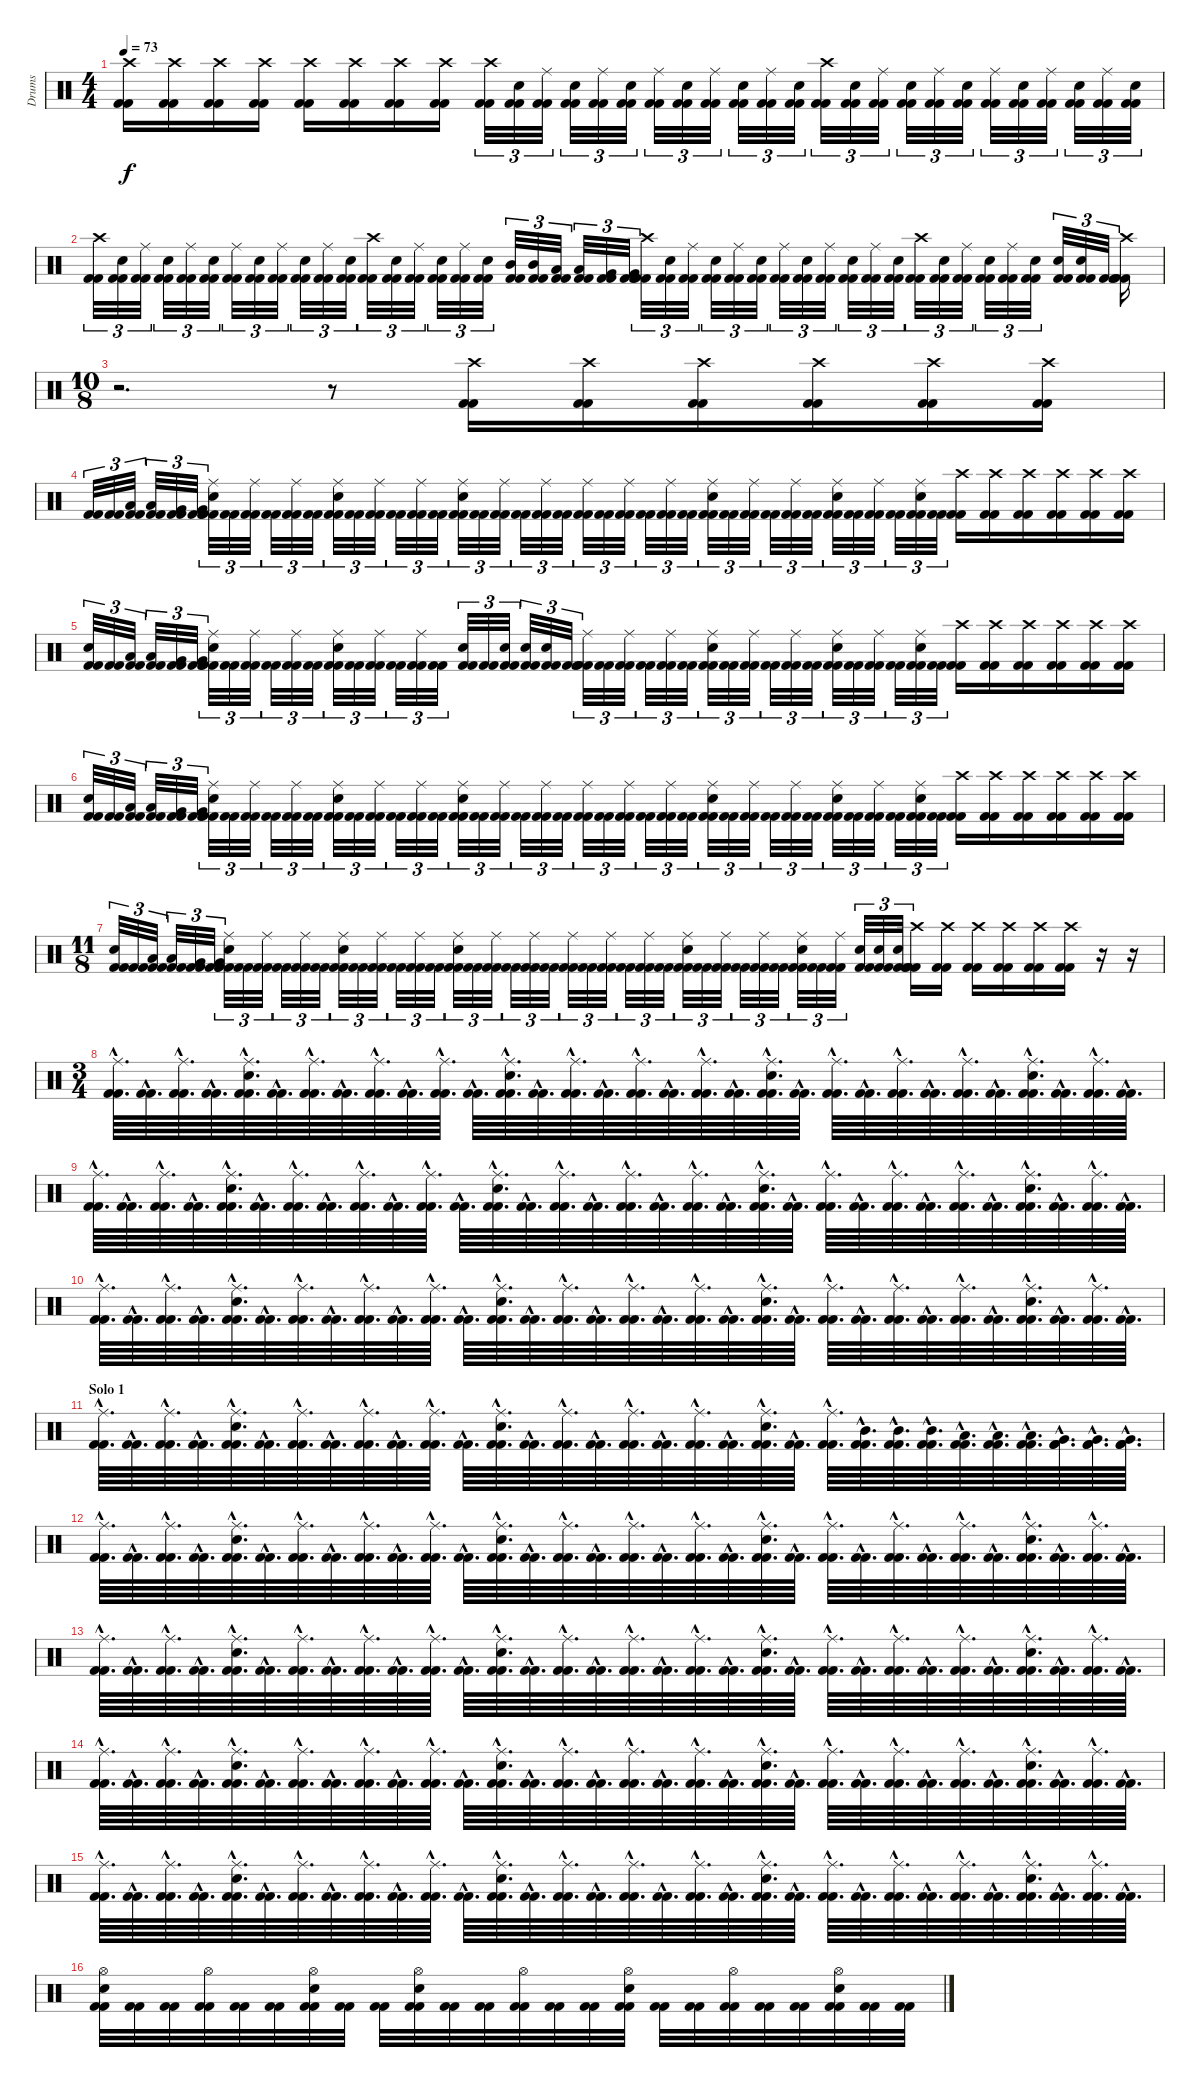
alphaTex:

\track ("Drums" "Drums") {instrument percussion}
\staff {score}
\articulation defaults
\ts (4 4)
\tempo 73
\clef neutral
\ks c
("Kick (hit) 2" "Kick (hit) 2" "Crash high (hit)").16{dy f} ("Kick (hit) 2" "Kick (hit) 2" "Crash high (hit)").16 ("Kick (hit) 2" "Kick (hit) 2" "Crash high (hit)").16 ("Kick (hit) 2" "Kick (hit) 2" "Crash high (hit)").16 ("Kick (hit) 2" "Kick (hit) 2" "Crash high (hit)").16 ("Kick (hit) 2" "Kick (hit) 2" "Crash high (hit)").16 ("Kick (hit) 2" "Kick (hit) 2" "Crash high (hit)").16 ("Kick (hit) 2" "Kick (hit) 2" "Crash high (hit)").16 ("Kick (hit) 2" "Kick (hit) 2" "Crash high (hit)").32{tu (3 2)} ("Kick (hit) 2" "Kick (hit) 2" "Electric Snare (hit)").32{tu (3 2)} ("Kick (hit) 2" "Kick (hit) 2" "Ride (middle)").32{tu (3 2)} ("Kick (hit) 2" "Kick (hit) 2" "Electric Snare (hit)").32{tu (3 2)} ("Kick (hit) 2" "Kick (hit) 2" "Ride (middle)").32{tu (3 2)} ("Kick (hit) 2" "Kick (hit) 2" "Electric Snare (hit)").32{tu (3 2)} ("Kick (hit) 2" "Kick (hit) 2" "Ride (middle)").32{tu (3 2)} ("Kick (hit) 2" "Kick (hit) 2" "Electric Snare (hit)").32{tu (3 2)} ("Kick (hit) 2" "Kick (hit) 2" "Ride (middle)").32{tu (3 2)} ("Kick (hit) 2" "Kick (hit) 2" "Electric Snare (hit)").32{tu (3 2)} ("Kick (hit) 2" "Kick (hit) 2" "Ride (middle)").32{tu (3 2)} ("Kick (hit) 2" "Kick (hit) 2" "Electric Snare (hit)").32{tu (3 2)} ("Kick (hit) 2" "Kick (hit) 2" "Crash high (hit)").32{tu (3 2)} ("Kick (hit) 2" "Kick (hit) 2" "Electric Snare (hit)").32{tu (3 2)} ("Kick (hit) 2" "Kick (hit) 2" "Ride (middle)").32{tu (3 2)} ("Kick (hit) 2" "Kick (hit) 2" "Electric Snare (hit)").32{tu (3 2)} ("Kick (hit) 2" "Kick (hit) 2" "Ride (middle)").32{tu (3 2)} ("Kick (hit) 2" "Kick (hit) 2" "Electric Snare (hit)").32{tu (3 2)} ("Kick (hit) 2" "Kick (hit) 2" "Ride (middle)").32{tu (3 2)} ("Kick (hit) 2" "Kick (hit) 2" "Electric Snare (hit)").32{tu (3 2)} ("Kick (hit) 2" "Kick (hit) 2" "Ride (middle)").32{tu (3 2)} ("Kick (hit) 2" "Kick (hit) 2" "Electric Snare (hit)").32{tu (3 2)} ("Kick (hit) 2" "Kick (hit) 2" "Ride (middle)").32{tu (3 2)} ("Kick (hit) 2" "Kick (hit) 2" "Electric Snare (hit)").32{tu (3 2)} |
("Kick (hit) 2" "Kick (hit) 2" "Crash high (hit)").32{tu (3 2)} ("Kick (hit) 2" "Kick (hit) 2" "Electric Snare (hit)").32{tu (3 2)} ("Kick (hit) 2" "Kick (hit) 2" "Ride (middle)").32{tu (3 2)} ("Kick (hit) 2" "Kick (hit) 2" "Electric Snare (hit)").32{tu (3 2)} ("Kick (hit) 2" "Kick (hit) 2" "Ride (middle)").32{tu (3 2)} ("Kick (hit) 2" "Kick (hit) 2" "Electric Snare (hit)").32{tu (3 2)} ("Kick (hit) 2" "Kick (hit) 2" "Ride (middle)").32{tu (3 2)} ("Kick (hit) 2" "Kick (hit) 2" "Electric Snare (hit)").32{tu (3 2)} ("Kick (hit) 2" "Kick (hit) 2" "Ride (middle)").32{tu (3 2)} ("Kick (hit) 2" "Kick (hit) 2" "Electric Snare (hit)").32{tu (3 2)} ("Kick (hit) 2" "Kick (hit) 2" "Ride (middle)").32{tu (3 2)} ("Kick (hit) 2" "Kick (hit) 2" "Electric Snare (hit)").32{tu (3 2)} ("Kick (hit) 2" "Kick (hit) 2" "Crash high (hit)").32{tu (3 2)} ("Kick (hit) 2" "Kick (hit) 2" "Electric Snare (hit)").32{tu (3 2)} ("Kick (hit) 2" "Kick (hit) 2" "Ride (middle)").32{tu (3 2)} ("Kick (hit) 2" "Kick (hit) 2" "Electric Snare (hit)").32{tu (3 2)} ("Kick (hit) 2" "Kick (hit) 2" "Ride (middle)").32{tu (3 2)} ("Kick (hit) 2" "Kick (hit) 2" "Electric Snare (hit)").32{tu (3 2)} ("Kick (hit) 2" "Kick (hit) 2" "Mid Tom (hit)").32{tu (3 2)} ("Kick (hit) 2" "Kick (hit) 2" "Mid Tom (hit)").32{tu (3 2)} ("Kick (hit) 2" "Kick (hit) 2" "Low Tom (hit)").32{tu (3 2)} ("Kick (hit) 2" "Kick (hit) 2" "Low Tom (hit)").32{tu (3 2)} ("Kick (hit) 2" "Kick (hit) 2" "Very Low Tom (hit)").32{tu (3 2)} ("Kick (hit) 2" "Kick (hit) 2" "Very Low Tom (hit)").32{tu (3 2)} ("Kick (hit) 2" "Kick (hit) 2" "Crash high (hit)").32{tu (3 2)} ("Kick (hit) 2" "Kick (hit) 2" "Electric Snare (hit)").32{tu (3 2)} ("Kick (hit) 2" "Kick (hit) 2" "Ride (middle)").32{tu (3 2)} ("Kick (hit) 2" "Kick (hit) 2" "Electric Snare (hit)").32{tu (3 2)} ("Kick (hit) 2" "Kick (hit) 2" "Ride (middle)").32{tu (3 2)} ("Kick (hit) 2" "Kick (hit) 2" "Electric Snare (hit)").32{tu (3 2)} ("Kick (hit) 2" "Kick (hit) 2" "Ride (middle)").32{tu (3 2)} ("Kick (hit) 2" "Kick (hit) 2" "Electric Snare (hit)").32{tu (3 2)} ("Kick (hit) 2" "Kick (hit) 2" "Ride (middle)").32{tu (3 2)} ("Kick (hit) 2" "Kick (hit) 2" "Electric Snare (hit)").32{tu (3 2)} ("Kick (hit) 2" "Kick (hit) 2" "Ride (middle)").32{tu (3 2)} ("Kick (hit) 2" "Kick (hit) 2" "Electric Snare (hit)").32{tu (3 2)} ("Kick (hit) 2" "Kick (hit) 2" "Crash high (hit)").32{tu (3 2)} ("Kick (hit) 2" "Kick (hit) 2" "Electric Snare (hit)").32{tu (3 2)} ("Kick (hit) 2" "Kick (hit) 2" "Ride (middle)").32{tu (3 2)} ("Kick (hit) 2" "Kick (hit) 2" "Electric Snare (hit)").32{tu (3 2)} ("Kick (hit) 2" "Kick (hit) 2" "Ride (middle)").32{tu (3 2)} ("Kick (hit) 2" "Kick (hit) 2" "Electric Snare (hit)").32{tu (3 2)} ("Kick (hit) 2" "Kick (hit) 2" "Electric Snare (hit)").32{tu (3 2)} ("Kick (hit) 2" "Kick (hit) 2" "Electric Snare (hit)").32{tu (3 2)} ("Kick (hit) 2" "Kick (hit) 2").32{tu (3 2)} ("Kick (hit) 2" "Kick (hit) 2" "Crash high (hit)").16 |
\ts (10 8)
r.2{d} r.8 ("Kick (hit) 2" "Kick (hit) 2" "Crash high (hit)").16 ("Kick (hit) 2" "Kick (hit) 2" "Crash high (hit)").16 ("Kick (hit) 2" "Kick (hit) 2" "Crash high (hit)").16 ("Kick (hit) 2" "Kick (hit) 2" "Crash high (hit)").16 ("Kick (hit) 2" "Kick (hit) 2" "Crash high (hit)").16 ("Kick (hit) 2" "Kick (hit) 2" "Crash high (hit)").16 |
("Kick (hit) 2" "Kick (hit) 2").32{tu (3 2)} ("Kick (hit) 2" "Kick (hit) 2").32{tu (3 2)} ("Kick (hit) 2" "Kick (hit) 2" "Low Tom (hit)").32{tu (3 2)} ("Kick (hit) 2" "Kick (hit) 2" "Low Tom (hit)").32{tu (3 2)} ("Kick (hit) 2" "Kick (hit) 2" "Very Low Tom (hit)").32{tu (3 2)} ("Kick (hit) 2" "Kick (hit) 2" "Very Low Tom (hit)").32{tu (3 2)} ("Kick (hit) 2" "Kick (hit) 2" "Electric Snare (hit)" "Ride (middle)").32{tu (3 2)} ("Kick (hit) 2" "Kick (hit) 2").32{tu (3 2)} ("Kick (hit) 2" "Kick (hit) 2" "Ride (middle)").32{tu (3 2)} ("Kick (hit) 2" "Kick (hit) 2").32{tu (3 2)} ("Kick (hit) 2" "Kick (hit) 2" "Ride (middle)").32{tu (3 2)} ("Kick (hit) 2" "Kick (hit) 2").32{tu (3 2)} ("Kick (hit) 2" "Kick (hit) 2" "Electric Snare (hit)" "Ride (middle)").32{tu (3 2)} ("Kick (hit) 2" "Kick (hit) 2").32{tu (3 2)} ("Kick (hit) 2" "Kick (hit) 2" "Ride (middle)").32{tu (3 2)} ("Kick (hit) 2" "Kick (hit) 2").32{tu (3 2)} ("Kick (hit) 2" "Kick (hit) 2" "Ride (middle)").32{tu (3 2)} ("Kick (hit) 2" "Kick (hit) 2").32{tu (3 2)} ("Kick (hit) 2" "Kick (hit) 2" "Electric Snare (hit)" "Ride (middle)").32{tu (3 2)} ("Kick (hit) 2" "Kick (hit) 2").32{tu (3 2)} ("Kick (hit) 2" "Kick (hit) 2" "Ride (middle)").32{tu (3 2)} ("Kick (hit) 2" "Kick (hit) 2").32{tu (3 2)} ("Kick (hit) 2" "Kick (hit) 2" "Ride (middle)").32{tu (3 2)} ("Kick (hit) 2" "Kick (hit) 2").32{tu (3 2)} ("Kick (hit) 2" "Kick (hit) 2" "Ride (middle)").32{tu (3 2)} ("Kick (hit) 2" "Kick (hit) 2").32{tu (3 2)} ("Kick (hit) 2" "Kick (hit) 2" "Ride (middle)").32{tu (3 2)} ("Kick (hit) 2" "Kick (hit) 2").32{tu (3 2)} ("Kick (hit) 2" "Kick (hit) 2" "Ride (middle)").32{tu (3 2)} ("Kick (hit) 2" "Kick (hit) 2").32{tu (3 2)} ("Kick (hit) 2" "Kick (hit) 2" "Electric Snare (hit)" "Ride (middle)").32{tu (3 2)} ("Kick (hit) 2" "Kick (hit) 2").32{tu (3 2)} ("Kick (hit) 2" "Kick (hit) 2" "Ride (middle)").32{tu (3 2)} ("Kick (hit) 2" "Kick (hit) 2").32{tu (3 2)} ("Kick (hit) 2" "Kick (hit) 2" "Ride (middle)").32{tu (3 2)} ("Kick (hit) 2" "Kick (hit) 2").32{tu (3 2)} ("Kick (hit) 2" "Kick (hit) 2" "Electric Snare (hit)" "Ride (middle)").32{tu (3 2)} ("Kick (hit) 2" "Kick (hit) 2").32{tu (3 2)} ("Kick (hit) 2" "Kick (hit) 2" "Ride (middle)").32{tu (3 2)} ("Kick (hit) 2" "Kick (hit) 2").32{tu (3 2)} ("Kick (hit) 2" "Kick (hit) 2" "Electric Snare (hit)" "Ride (middle)").32{tu (3 2)} ("Kick (hit) 2" "Kick (hit) 2").32{tu (3 2)} ("Kick (hit) 2" "Kick (hit) 2" "Crash high (hit)").16 ("Kick (hit) 2" "Kick (hit) 2" "Crash high (hit)").16 ("Kick (hit) 2" "Kick (hit) 2" "Crash high (hit)").16 ("Kick (hit) 2" "Kick (hit) 2" "Crash high (hit)").16 ("Kick (hit) 2" "Kick (hit) 2" "Crash high (hit)").16 ("Kick (hit) 2" "Kick (hit) 2" "Crash high (hit)").16 |
("Kick (hit) 2" "Kick (hit) 2" "Electric Snare (hit)").32{tu (3 2)} ("Kick (hit) 2" "Kick (hit) 2").32{tu (3 2)} ("Kick (hit) 2" "Kick (hit) 2" "Low Tom (hit)").32{tu (3 2)} ("Kick (hit) 2" "Kick (hit) 2" "Low Tom (hit)").32{tu (3 2)} ("Kick (hit) 2" "Kick (hit) 2" "Very Low Tom (hit)").32{tu (3 2)} ("Kick (hit) 2" "Kick (hit) 2" "Very Low Tom (hit)").32{tu (3 2)} ("Kick (hit) 2" "Kick (hit) 2" "Electric Snare (hit)" "Ride (middle)").32{tu (3 2)} ("Kick (hit) 2" "Kick (hit) 2").32{tu (3 2)} ("Kick (hit) 2" "Kick (hit) 2" "Ride (middle)").32{tu (3 2)} ("Kick (hit) 2" "Kick (hit) 2").32{tu (3 2)} ("Kick (hit) 2" "Kick (hit) 2" "Ride (middle)").32{tu (3 2)} ("Kick (hit) 2" "Kick (hit) 2").32{tu (3 2)} ("Kick (hit) 2" "Kick (hit) 2" "Electric Snare (hit)" "Ride (middle)").32{tu (3 2)} ("Kick (hit) 2" "Kick (hit) 2").32{tu (3 2)} ("Kick (hit) 2" "Kick (hit) 2" "Ride (middle)").32{tu (3 2)} ("Kick (hit) 2" "Kick (hit) 2").32{tu (3 2)} ("Kick (hit) 2" "Kick (hit) 2" "Ride (middle)").32{tu (3 2)} ("Kick (hit) 2" "Kick (hit) 2").32{tu (3 2)} ("Kick (hit) 2" "Kick (hit) 2" "Electric Snare (hit)").32{tu (3 2)} ("Kick (hit) 2" "Kick (hit) 2").32{tu (3 2)} ("Kick (hit) 2" "Kick (hit) 2" "Electric Snare (hit)").32{tu (3 2)} ("Kick (hit) 2" "Kick (hit) 2" "Electric Snare (hit)").32{tu (3 2)} ("Kick (hit) 2" "Kick (hit) 2" "Electric Snare (hit)").32{tu (3 2)} ("Kick (hit) 2" "Kick (hit) 2").32{tu (3 2)} ("Kick (hit) 2" "Kick (hit) 2" "Ride (middle)").32{tu (3 2)} ("Kick (hit) 2" "Kick (hit) 2").32{tu (3 2)} ("Kick (hit) 2" "Kick (hit) 2" "Ride (middle)").32{tu (3 2)} ("Kick (hit) 2" "Kick (hit) 2").32{tu (3 2)} ("Kick (hit) 2" "Kick (hit) 2" "Ride (middle)").32{tu (3 2)} ("Kick (hit) 2" "Kick (hit) 2").32{tu (3 2)} ("Kick (hit) 2" "Kick (hit) 2" "Electric Snare (hit)" "Ride (middle)").32{tu (3 2)} ("Kick (hit) 2" "Kick (hit) 2").32{tu (3 2)} ("Kick (hit) 2" "Kick (hit) 2" "Ride (middle)").32{tu (3 2)} ("Kick (hit) 2" "Kick (hit) 2").32{tu (3 2)} ("Kick (hit) 2" "Kick (hit) 2" "Ride (middle)").32{tu (3 2)} ("Kick (hit) 2" "Kick (hit) 2").32{tu (3 2)} ("Kick (hit) 2" "Kick (hit) 2" "Electric Snare (hit)" "Ride (middle)").32{tu (3 2)} ("Kick (hit) 2" "Kick (hit) 2").32{tu (3 2)} ("Kick (hit) 2" "Kick (hit) 2" "Ride (middle)").32{tu (3 2)} ("Kick (hit) 2" "Kick (hit) 2").32{tu (3 2)} ("Kick (hit) 2" "Kick (hit) 2" "Electric Snare (hit)" "Ride (middle)").32{tu (3 2)} ("Kick (hit) 2" "Kick (hit) 2").32{tu (3 2)} ("Kick (hit) 2" "Kick (hit) 2" "Crash high (hit)").16 ("Kick (hit) 2" "Kick (hit) 2" "Crash high (hit)").16 ("Kick (hit) 2" "Kick (hit) 2" "Crash high (hit)").16 ("Kick (hit) 2" "Kick (hit) 2" "Crash high (hit)").16 ("Kick (hit) 2" "Kick (hit) 2" "Crash high (hit)").16 ("Kick (hit) 2" "Kick (hit) 2" "Crash high (hit)").16 |
("Kick (hit) 2" "Kick (hit) 2" "Electric Snare (hit)").32{tu (3 2)} ("Kick (hit) 2" "Kick (hit) 2").32{tu (3 2)} ("Kick (hit) 2" "Kick (hit) 2" "Low Tom (hit)").32{tu (3 2)} ("Kick (hit) 2" "Kick (hit) 2" "Low Tom (hit)").32{tu (3 2)} ("Kick (hit) 2" "Kick (hit) 2" "Very Low Tom (hit)").32{tu (3 2)} ("Kick (hit) 2" "Kick (hit) 2" "Very Low Tom (hit)").32{tu (3 2)} ("Kick (hit) 2" "Kick (hit) 2" "Electric Snare (hit)" "Ride (middle)").32{tu (3 2)} ("Kick (hit) 2" "Kick (hit) 2").32{tu (3 2)} ("Kick (hit) 2" "Kick (hit) 2" "Ride (middle)").32{tu (3 2)} ("Kick (hit) 2" "Kick (hit) 2").32{tu (3 2)} ("Kick (hit) 2" "Kick (hit) 2" "Ride (middle)").32{tu (3 2)} ("Kick (hit) 2" "Kick (hit) 2").32{tu (3 2)} ("Kick (hit) 2" "Kick (hit) 2" "Electric Snare (hit)" "Ride (middle)").32{tu (3 2)} ("Kick (hit) 2" "Kick (hit) 2").32{tu (3 2)} ("Kick (hit) 2" "Kick (hit) 2" "Ride (middle)").32{tu (3 2)} ("Kick (hit) 2" "Kick (hit) 2").32{tu (3 2)} ("Kick (hit) 2" "Kick (hit) 2" "Ride (middle)").32{tu (3 2)} ("Kick (hit) 2" "Kick (hit) 2").32{tu (3 2)} ("Kick (hit) 2" "Kick (hit) 2" "Electric Snare (hit)" "Ride (middle)").32{tu (3 2)} ("Kick (hit) 2" "Kick (hit) 2").32{tu (3 2)} ("Kick (hit) 2" "Kick (hit) 2" "Ride (middle)").32{tu (3 2)} ("Kick (hit) 2" "Kick (hit) 2").32{tu (3 2)} ("Kick (hit) 2" "Kick (hit) 2" "Ride (middle)").32{tu (3 2)} ("Kick (hit) 2" "Kick (hit) 2").32{tu (3 2)} ("Kick (hit) 2" "Kick (hit) 2" "Ride (middle)").32{tu (3 2)} ("Kick (hit) 2" "Kick (hit) 2").32{tu (3 2)} ("Kick (hit) 2" "Kick (hit) 2" "Ride (middle)").32{tu (3 2)} ("Kick (hit) 2" "Kick (hit) 2").32{tu (3 2)} ("Kick (hit) 2" "Kick (hit) 2" "Ride (middle)").32{tu (3 2)} ("Kick (hit) 2" "Kick (hit) 2").32{tu (3 2)} ("Kick (hit) 2" "Kick (hit) 2" "Electric Snare (hit)" "Ride (middle)").32{tu (3 2)} ("Kick (hit) 2" "Kick (hit) 2").32{tu (3 2)} ("Kick (hit) 2" "Kick (hit) 2" "Ride (middle)").32{tu (3 2)} ("Kick (hit) 2" "Kick (hit) 2").32{tu (3 2)} ("Kick (hit) 2" "Kick (hit) 2" "Ride (middle)").32{tu (3 2)} ("Kick (hit) 2" "Kick (hit) 2").32{tu (3 2)} ("Kick (hit) 2" "Kick (hit) 2" "Electric Snare (hit)" "Ride (middle)").32{tu (3 2)} ("Kick (hit) 2" "Kick (hit) 2").32{tu (3 2)} ("Kick (hit) 2" "Kick (hit) 2" "Ride (middle)").32{tu (3 2)} ("Kick (hit) 2" "Kick (hit) 2").32{tu (3 2)} ("Kick (hit) 2" "Kick (hit) 2" "Electric Snare (hit)" "Ride (middle)").32{tu (3 2)} ("Kick (hit) 2" "Kick (hit) 2").32{tu (3 2)} ("Kick (hit) 2" "Kick (hit) 2" "Crash high (hit)").16 ("Kick (hit) 2" "Kick (hit) 2" "Crash high (hit)").16 ("Kick (hit) 2" "Kick (hit) 2" "Crash high (hit)").16 ("Kick (hit) 2" "Kick (hit) 2" "Crash high (hit)").16 ("Kick (hit) 2" "Kick (hit) 2" "Crash high (hit)").16 ("Kick (hit) 2" "Kick (hit) 2" "Crash high (hit)").16 |
\ts (11 8)
("Kick (hit) 2" "Kick (hit) 2" "Electric Snare (hit)").32{tu (3 2)} ("Kick (hit) 2" "Kick (hit) 2").32{tu (3 2)} ("Kick (hit) 2" "Kick (hit) 2" "Low Tom (hit)").32{tu (3 2)} ("Kick (hit) 2" "Kick (hit) 2" "Low Tom (hit)").32{tu (3 2)} ("Kick (hit) 2" "Kick (hit) 2" "Very Low Tom (hit)").32{tu (3 2)} ("Kick (hit) 2" "Kick (hit) 2" "Very Low Tom (hit)").32{tu (3 2)} ("Kick (hit) 2" "Kick (hit) 2" "Electric Snare (hit)" "Ride (middle)").32{tu (3 2)} ("Kick (hit) 2" "Kick (hit) 2").32{tu (3 2)} ("Kick (hit) 2" "Kick (hit) 2" "Ride (middle)").32{tu (3 2)} ("Kick (hit) 2" "Kick (hit) 2").32{tu (3 2)} ("Kick (hit) 2" "Kick (hit) 2" "Ride (middle)").32{tu (3 2)} ("Kick (hit) 2" "Kick (hit) 2").32{tu (3 2)} ("Kick (hit) 2" "Kick (hit) 2" "Electric Snare (hit)" "Ride (middle)").32{tu (3 2)} ("Kick (hit) 2" "Kick (hit) 2").32{tu (3 2)} ("Kick (hit) 2" "Kick (hit) 2" "Ride (middle)").32{tu (3 2)} ("Kick (hit) 2" "Kick (hit) 2").32{tu (3 2)} ("Kick (hit) 2" "Kick (hit) 2" "Ride (middle)").32{tu (3 2)} ("Kick (hit) 2" "Kick (hit) 2").32{tu (3 2)} ("Kick (hit) 2" "Kick (hit) 2" "Electric Snare (hit)" "Ride (middle)").32{tu (3 2)} ("Kick (hit) 2" "Kick (hit) 2").32{tu (3 2)} ("Kick (hit) 2" "Kick (hit) 2" "Ride (middle)").32{tu (3 2)} ("Kick (hit) 2" "Kick (hit) 2").32{tu (3 2)} ("Kick (hit) 2" "Kick (hit) 2" "Ride (middle)").32{tu (3 2)} ("Kick (hit) 2" "Kick (hit) 2").32{tu (3 2)} ("Kick (hit) 2" "Kick (hit) 2" "Ride (middle)").32{tu (3 2)} ("Kick (hit) 2" "Kick (hit) 2").32{tu (3 2)} ("Kick (hit) 2" "Kick (hit) 2" "Ride (middle)").32{tu (3 2)} ("Kick (hit) 2" "Kick (hit) 2").32{tu (3 2)} ("Kick (hit) 2" "Kick (hit) 2" "Ride (middle)").32{tu (3 2)} ("Kick (hit) 2" "Kick (hit) 2").32{tu (3 2)} ("Kick (hit) 2" "Kick (hit) 2" "Electric Snare (hit)" "Ride (middle)").32{tu (3 2)} ("Kick (hit) 2" "Kick (hit) 2").32{tu (3 2)} ("Kick (hit) 2" "Kick (hit) 2" "Ride (middle)").32{tu (3 2)} ("Kick (hit) 2" "Kick (hit) 2").32{tu (3 2)} ("Kick (hit) 2" "Kick (hit) 2" "Ride (middle)").32{tu (3 2)} ("Kick (hit) 2" "Kick (hit) 2").32{tu (3 2)} ("Kick (hit) 2" "Kick (hit) 2" "Electric Snare (hit)" "Ride (middle)").32{tu (3 2)} ("Kick (hit) 2" "Kick (hit) 2").32{tu (3 2)} ("Kick (hit) 2" "Kick (hit) 2" "Ride (middle)").32{tu (3 2)} ("Kick (hit) 2" "Kick (hit) 2" "Electric Snare (hit)").32{tu (3 2)} ("Kick (hit) 2" "Kick (hit) 2" "Electric Snare (hit)").32{tu (3 2)} ("Kick (hit) 2" "Kick (hit) 2" "Electric Snare (hit)").32{tu (3 2)} ("Kick (hit) 2" "Kick (hit) 2" "Crash high (hit)").16 ("Kick (hit) 2" "Kick (hit) 2" "Crash high (hit)").16 ("Kick (hit) 2" "Kick (hit) 2" "Crash high (hit)").16 ("Kick (hit) 2" "Kick (hit) 2" "Crash high (hit)").16 ("Kick (hit) 2" "Kick (hit) 2" "Crash high (hit)").16 ("Kick (hit) 2" "Kick (hit) 2" "Crash high (hit)").16 r.16 r.16 |
\ts (3 4)
("Kick (hit) 2"{hac} "Kick (hit) 2"{hac} "Ride (middle)"{hac}).64{d} ("Kick (hit) 2"{hac} "Kick (hit) 2"{hac}).64{d} ("Kick (hit) 2"{hac} "Kick (hit) 2"{hac} "Ride (middle)"{hac}).64{d} ("Kick (hit) 2"{hac} "Kick (hit) 2"{hac}).64{d} ("Kick (hit) 2"{hac} "Kick (hit) 2"{hac} "Electric Snare (hit)"{hac} "Ride (middle)"{hac}).64{d} ("Kick (hit) 2"{hac} "Kick (hit) 2"{hac}).64{d} ("Kick (hit) 2"{hac} "Kick (hit) 2"{hac} "Ride (middle)"{hac}).64{d} ("Kick (hit) 2"{hac} "Kick (hit) 2"{hac}).64{d} ("Kick (hit) 2"{hac} "Kick (hit) 2"{hac} "Ride (middle)"{hac}).64{d} ("Kick (hit) 2"{hac} "Kick (hit) 2"{hac}).64{d} ("Kick (hit) 2"{hac} "Kick (hit) 2"{hac} "Ride (middle)"{hac}).64{d} ("Kick (hit) 2"{hac} "Kick (hit) 2"{hac}).64{d} ("Kick (hit) 2"{hac} "Kick (hit) 2"{hac} "Electric Snare (hit)"{hac} "Ride (middle)"{hac}).64{d} ("Kick (hit) 2"{hac} "Kick (hit) 2"{hac}).64{d} ("Kick (hit) 2"{hac} "Kick (hit) 2"{hac} "Ride (middle)"{hac}).64{d} ("Kick (hit) 2"{hac} "Kick (hit) 2"{hac}).64{d} ("Kick (hit) 2"{hac} "Kick (hit) 2"{hac} "Ride (middle)"{hac}).64{d} ("Kick (hit) 2"{hac} "Kick (hit) 2"{hac}).64{d} ("Kick (hit) 2"{hac} "Kick (hit) 2"{hac} "Ride (middle)"{hac}).64{d} ("Kick (hit) 2"{hac} "Kick (hit) 2"{hac}).64{d} ("Kick (hit) 2"{hac} "Kick (hit) 2"{hac} "Electric Snare (hit)"{hac} "Ride (middle)"{hac}).64{d} ("Kick (hit) 2"{hac} "Kick (hit) 2"{hac}).64{d} ("Kick (hit) 2"{hac} "Kick (hit) 2"{hac} "Ride (middle)"{hac}).64{d} ("Kick (hit) 2"{hac} "Kick (hit) 2"{hac}).64{d} ("Kick (hit) 2"{hac} "Kick (hit) 2"{hac} "Ride (middle)"{hac}).64{d} ("Kick (hit) 2"{hac} "Kick (hit) 2"{hac}).64{d} ("Kick (hit) 2"{hac} "Kick (hit) 2"{hac} "Ride (middle)"{hac}).64{d} ("Kick (hit) 2"{hac} "Kick (hit) 2"{hac}).64{d} ("Kick (hit) 2"{hac} "Kick (hit) 2"{hac} "Electric Snare (hit)"{hac} "Ride (middle)"{hac}).64{d} ("Kick (hit) 2"{hac} "Kick (hit) 2"{hac}).64{d} ("Kick (hit) 2"{hac} "Kick (hit) 2"{hac} "Ride (middle)"{hac}).64{d} ("Kick (hit) 2"{hac} "Kick (hit) 2"{hac}).64{d} |
("Kick (hit) 2"{hac} "Kick (hit) 2"{hac} "Ride (middle)"{hac}).64{d} ("Kick (hit) 2"{hac} "Kick (hit) 2"{hac}).64{d} ("Kick (hit) 2"{hac} "Kick (hit) 2"{hac} "Ride (middle)"{hac}).64{d} ("Kick (hit) 2"{hac} "Kick (hit) 2"{hac}).64{d} ("Kick (hit) 2"{hac} "Kick (hit) 2"{hac} "Electric Snare (hit)"{hac} "Ride (middle)"{hac}).64{d} ("Kick (hit) 2"{hac} "Kick (hit) 2"{hac}).64{d} ("Kick (hit) 2"{hac} "Kick (hit) 2"{hac} "Ride (middle)"{hac}).64{d} ("Kick (hit) 2"{hac} "Kick (hit) 2"{hac}).64{d} ("Kick (hit) 2"{hac} "Kick (hit) 2"{hac} "Ride (middle)"{hac}).64{d} ("Kick (hit) 2"{hac} "Kick (hit) 2"{hac}).64{d} ("Kick (hit) 2"{hac} "Kick (hit) 2"{hac} "Ride (middle)"{hac}).64{d} ("Kick (hit) 2"{hac} "Kick (hit) 2"{hac}).64{d} ("Kick (hit) 2"{hac} "Kick (hit) 2"{hac} "Electric Snare (hit)"{hac} "Ride (middle)"{hac}).64{d} ("Kick (hit) 2"{hac} "Kick (hit) 2"{hac}).64{d} ("Kick (hit) 2"{hac} "Kick (hit) 2"{hac} "Ride (middle)"{hac}).64{d} ("Kick (hit) 2"{hac} "Kick (hit) 2"{hac}).64{d} ("Kick (hit) 2"{hac} "Kick (hit) 2"{hac} "Ride (middle)"{hac}).64{d} ("Kick (hit) 2"{hac} "Kick (hit) 2"{hac}).64{d} ("Kick (hit) 2"{hac} "Kick (hit) 2"{hac} "Ride (middle)"{hac}).64{d} ("Kick (hit) 2"{hac} "Kick (hit) 2"{hac}).64{d} ("Kick (hit) 2"{hac} "Kick (hit) 2"{hac} "Electric Snare (hit)"{hac} "Ride (middle)"{hac}).64{d} ("Kick (hit) 2"{hac} "Kick (hit) 2"{hac}).64{d} ("Kick (hit) 2"{hac} "Kick (hit) 2"{hac} "Ride (middle)"{hac}).64{d} ("Kick (hit) 2"{hac} "Kick (hit) 2"{hac}).64{d} ("Kick (hit) 2"{hac} "Kick (hit) 2"{hac} "Ride (middle)"{hac}).64{d} ("Kick (hit) 2"{hac} "Kick (hit) 2"{hac}).64{d} ("Kick (hit) 2"{hac} "Kick (hit) 2"{hac} "Ride (middle)"{hac}).64{d} ("Kick (hit) 2"{hac} "Kick (hit) 2"{hac}).64{d} ("Kick (hit) 2"{hac} "Kick (hit) 2"{hac} "Electric Snare (hit)"{hac} "Ride (middle)"{hac}).64{d} ("Kick (hit) 2"{hac} "Kick (hit) 2"{hac}).64{d} ("Kick (hit) 2"{hac} "Kick (hit) 2"{hac} "Ride (middle)"{hac}).64{d} ("Kick (hit) 2"{hac} "Kick (hit) 2"{hac}).64{d} |
("Kick (hit) 2"{hac} "Kick (hit) 2"{hac} "Ride (middle)"{hac}).64{d} ("Kick (hit) 2"{hac} "Kick (hit) 2"{hac}).64{d} ("Kick (hit) 2"{hac} "Kick (hit) 2"{hac} "Ride (middle)"{hac}).64{d} ("Kick (hit) 2"{hac} "Kick (hit) 2"{hac}).64{d} ("Kick (hit) 2"{hac} "Kick (hit) 2"{hac} "Electric Snare (hit)"{hac} "Ride (middle)"{hac}).64{d} ("Kick (hit) 2"{hac} "Kick (hit) 2"{hac}).64{d} ("Kick (hit) 2"{hac} "Kick (hit) 2"{hac} "Ride (middle)"{hac}).64{d} ("Kick (hit) 2"{hac} "Kick (hit) 2"{hac}).64{d} ("Kick (hit) 2"{hac} "Kick (hit) 2"{hac} "Ride (middle)"{hac}).64{d} ("Kick (hit) 2"{hac} "Kick (hit) 2"{hac}).64{d} ("Kick (hit) 2"{hac} "Kick (hit) 2"{hac} "Ride (middle)"{hac}).64{d} ("Kick (hit) 2"{hac} "Kick (hit) 2"{hac}).64{d} ("Kick (hit) 2"{hac} "Kick (hit) 2"{hac} "Electric Snare (hit)"{hac} "Ride (middle)"{hac}).64{d} ("Kick (hit) 2"{hac} "Kick (hit) 2"{hac}).64{d} ("Kick (hit) 2"{hac} "Kick (hit) 2"{hac} "Ride (middle)"{hac}).64{d} ("Kick (hit) 2"{hac} "Kick (hit) 2"{hac}).64{d} ("Kick (hit) 2"{hac} "Kick (hit) 2"{hac} "Ride (middle)"{hac}).64{d} ("Kick (hit) 2"{hac} "Kick (hit) 2"{hac}).64{d} ("Kick (hit) 2"{hac} "Kick (hit) 2"{hac} "Ride (middle)"{hac}).64{d} ("Kick (hit) 2"{hac} "Kick (hit) 2"{hac}).64{d} ("Kick (hit) 2"{hac} "Kick (hit) 2"{hac} "Electric Snare (hit)"{hac} "Ride (middle)"{hac}).64{d} ("Kick (hit) 2"{hac} "Kick (hit) 2"{hac}).64{d} ("Kick (hit) 2"{hac} "Kick (hit) 2"{hac} "Ride (middle)"{hac}).64{d} ("Kick (hit) 2"{hac} "Kick (hit) 2"{hac}).64{d} ("Kick (hit) 2"{hac} "Kick (hit) 2"{hac} "Ride (middle)"{hac}).64{d} ("Kick (hit) 2"{hac} "Kick (hit) 2"{hac}).64{d} ("Kick (hit) 2"{hac} "Kick (hit) 2"{hac} "Ride (middle)"{hac}).64{d} ("Kick (hit) 2"{hac} "Kick (hit) 2"{hac}).64{d} ("Kick (hit) 2"{hac} "Kick (hit) 2"{hac} "Electric Snare (hit)"{hac} "Ride (middle)"{hac}).64{d} ("Kick (hit) 2"{hac} "Kick (hit) 2"{hac}).64{d} ("Kick (hit) 2"{hac} "Kick (hit) 2"{hac} "Ride (middle)"{hac}).64{d} ("Kick (hit) 2"{hac} "Kick (hit) 2"{hac}).64{d} |
\section ("" "Solo 1")
("Kick (hit) 2"{hac} "Kick (hit) 2"{hac} "Ride (middle)"{hac}).64{d} ("Kick (hit) 2"{hac} "Kick (hit) 2"{hac}).64{d} ("Kick (hit) 2"{hac} "Kick (hit) 2"{hac} "Ride (middle)"{hac}).64{d} ("Kick (hit) 2"{hac} "Kick (hit) 2"{hac}).64{d} ("Kick (hit) 2"{hac} "Kick (hit) 2"{hac} "Electric Snare (hit)"{hac} "Ride (middle)"{hac}).64{d} ("Kick (hit) 2"{hac} "Kick (hit) 2"{hac}).64{d} ("Kick (hit) 2"{hac} "Kick (hit) 2"{hac} "Ride (middle)"{hac}).64{d} ("Kick (hit) 2"{hac} "Kick (hit) 2"{hac}).64{d} ("Kick (hit) 2"{hac} "Kick (hit) 2"{hac} "Ride (middle)"{hac}).64{d} ("Kick (hit) 2"{hac} "Kick (hit) 2"{hac}).64{d} ("Kick (hit) 2"{hac} "Kick (hit) 2"{hac} "Ride (middle)"{hac}).64{d} ("Kick (hit) 2"{hac} "Kick (hit) 2"{hac}).64{d} ("Kick (hit) 2"{hac} "Kick (hit) 2"{hac} "Electric Snare (hit)"{hac} "Ride (middle)"{hac}).64{d} ("Kick (hit) 2"{hac} "Kick (hit) 2"{hac}).64{d} ("Kick (hit) 2"{hac} "Kick (hit) 2"{hac} "Ride (middle)"{hac}).64{d} ("Kick (hit) 2"{hac} "Kick (hit) 2"{hac}).64{d} ("Kick (hit) 2"{hac} "Kick (hit) 2"{hac} "Ride (middle)"{hac}).64{d} ("Kick (hit) 2"{hac} "Kick (hit) 2"{hac}).64{d} ("Kick (hit) 2"{hac} "Kick (hit) 2"{hac} "Ride (middle)"{hac}).64{d} ("Kick (hit) 2"{hac} "Kick (hit) 2"{hac}).64{d} ("Kick (hit) 2"{hac} "Kick (hit) 2"{hac} "Electric Snare (hit)"{hac} "Ride (middle)"{hac}).64{d} ("Kick (hit) 2"{hac} "Kick (hit) 2"{hac}).64{d} ("Kick (hit) 2"{hac} "Kick (hit) 2"{hac} "Ride (middle)"{hac}).64{d} ("Kick (hit) 2"{hac} "Kick (hit) 2"{hac} "Mid Tom (hit)"{hac}).64{d} ("Kick (hit) 2"{hac} "Kick (hit) 2"{hac} "Mid Tom (hit)"{hac}).64{d} ("Kick (hit) 2"{hac} "Kick (hit) 2"{hac} "Mid Tom (hit)"{hac}).64{d} ("Kick (hit) 2"{hac} "Kick (hit) 2"{hac} "Low Tom (hit)"{hac}).64{d} ("Kick (hit) 2"{hac} "Kick (hit) 2"{hac} "Low Tom (hit)"{hac}).64{d} ("Kick (hit) 2"{hac} "Kick (hit) 2"{hac} "Low Tom (hit)"{hac}).64{d} ("Kick (hit) 2"{hac} "Kick (hit) 2"{hac} "Very Low Tom (hit)"{hac}).64{d} ("Kick (hit) 2"{hac} "Kick (hit) 2"{hac} "Very Low Tom (hit)"{hac}).64{d} ("Kick (hit) 2"{hac} "Kick (hit) 2"{hac} "Very Low Tom (hit)"{hac}).64{d} |
("Kick (hit) 2"{hac} "Kick (hit) 2"{hac} "Ride (middle)"{hac}).64{d} ("Kick (hit) 2"{hac} "Kick (hit) 2"{hac}).64{d} ("Kick (hit) 2"{hac} "Kick (hit) 2"{hac} "Ride (middle)"{hac}).64{d} ("Kick (hit) 2"{hac} "Kick (hit) 2"{hac}).64{d} ("Kick (hit) 2"{hac} "Kick (hit) 2"{hac} "Electric Snare (hit)"{hac} "Ride (middle)"{hac}).64{d} ("Kick (hit) 2"{hac} "Kick (hit) 2"{hac}).64{d} ("Kick (hit) 2"{hac} "Kick (hit) 2"{hac} "Ride (middle)"{hac}).64{d} ("Kick (hit) 2"{hac} "Kick (hit) 2"{hac}).64{d} ("Kick (hit) 2"{hac} "Kick (hit) 2"{hac} "Ride (middle)"{hac}).64{d} ("Kick (hit) 2"{hac} "Kick (hit) 2"{hac}).64{d} ("Kick (hit) 2"{hac} "Kick (hit) 2"{hac} "Ride (middle)"{hac}).64{d} ("Kick (hit) 2"{hac} "Kick (hit) 2"{hac}).64{d} ("Kick (hit) 2"{hac} "Kick (hit) 2"{hac} "Electric Snare (hit)"{hac} "Ride (middle)"{hac}).64{d} ("Kick (hit) 2"{hac} "Kick (hit) 2"{hac}).64{d} ("Kick (hit) 2"{hac} "Kick (hit) 2"{hac} "Ride (middle)"{hac}).64{d} ("Kick (hit) 2"{hac} "Kick (hit) 2"{hac}).64{d} ("Kick (hit) 2"{hac} "Kick (hit) 2"{hac} "Ride (middle)"{hac}).64{d} ("Kick (hit) 2"{hac} "Kick (hit) 2"{hac}).64{d} ("Kick (hit) 2"{hac} "Kick (hit) 2"{hac} "Ride (middle)"{hac}).64{d} ("Kick (hit) 2"{hac} "Kick (hit) 2"{hac}).64{d} ("Kick (hit) 2"{hac} "Kick (hit) 2"{hac} "Electric Snare (hit)"{hac} "Ride (middle)"{hac}).64{d} ("Kick (hit) 2"{hac} "Kick (hit) 2"{hac}).64{d} ("Kick (hit) 2"{hac} "Kick (hit) 2"{hac} "Ride (middle)"{hac}).64{d} ("Kick (hit) 2"{hac} "Kick (hit) 2"{hac}).64{d} ("Kick (hit) 2"{hac} "Kick (hit) 2"{hac} "Ride (middle)"{hac}).64{d} ("Kick (hit) 2"{hac} "Kick (hit) 2"{hac}).64{d} ("Kick (hit) 2"{hac} "Kick (hit) 2"{hac} "Ride (middle)"{hac}).64{d} ("Kick (hit) 2"{hac} "Kick (hit) 2"{hac}).64{d} ("Kick (hit) 2"{hac} "Kick (hit) 2"{hac} "Electric Snare (hit)"{hac} "Ride (middle)"{hac}).64{d} ("Kick (hit) 2"{hac} "Kick (hit) 2"{hac}).64{d} ("Kick (hit) 2"{hac} "Kick (hit) 2"{hac} "Ride (middle)"{hac}).64{d} ("Kick (hit) 2"{hac} "Kick (hit) 2"{hac}).64{d} |
("Kick (hit) 2"{hac} "Kick (hit) 2"{hac} "Ride (middle)"{hac}).64{d} ("Kick (hit) 2"{hac} "Kick (hit) 2"{hac}).64{d} ("Kick (hit) 2"{hac} "Kick (hit) 2"{hac} "Ride (middle)"{hac}).64{d} ("Kick (hit) 2"{hac} "Kick (hit) 2"{hac}).64{d} ("Kick (hit) 2"{hac} "Kick (hit) 2"{hac} "Electric Snare (hit)"{hac} "Ride (middle)"{hac}).64{d} ("Kick (hit) 2"{hac} "Kick (hit) 2"{hac}).64{d} ("Kick (hit) 2"{hac} "Kick (hit) 2"{hac} "Ride (middle)"{hac}).64{d} ("Kick (hit) 2"{hac} "Kick (hit) 2"{hac}).64{d} ("Kick (hit) 2"{hac} "Kick (hit) 2"{hac} "Ride (middle)"{hac}).64{d} ("Kick (hit) 2"{hac} "Kick (hit) 2"{hac}).64{d} ("Kick (hit) 2"{hac} "Kick (hit) 2"{hac} "Ride (middle)"{hac}).64{d} ("Kick (hit) 2"{hac} "Kick (hit) 2"{hac}).64{d} ("Kick (hit) 2"{hac} "Kick (hit) 2"{hac} "Electric Snare (hit)"{hac} "Ride (middle)"{hac}).64{d} ("Kick (hit) 2"{hac} "Kick (hit) 2"{hac}).64{d} ("Kick (hit) 2"{hac} "Kick (hit) 2"{hac} "Ride (middle)"{hac}).64{d} ("Kick (hit) 2"{hac} "Kick (hit) 2"{hac}).64{d} ("Kick (hit) 2"{hac} "Kick (hit) 2"{hac} "Ride (middle)"{hac}).64{d} ("Kick (hit) 2"{hac} "Kick (hit) 2"{hac}).64{d} ("Kick (hit) 2"{hac} "Kick (hit) 2"{hac} "Ride (middle)"{hac}).64{d} ("Kick (hit) 2"{hac} "Kick (hit) 2"{hac}).64{d} ("Kick (hit) 2"{hac} "Kick (hit) 2"{hac} "Electric Snare (hit)"{hac} "Ride (middle)"{hac}).64{d} ("Kick (hit) 2"{hac} "Kick (hit) 2"{hac}).64{d} ("Kick (hit) 2"{hac} "Kick (hit) 2"{hac} "Ride (middle)"{hac}).64{d} ("Kick (hit) 2"{hac} "Kick (hit) 2"{hac}).64{d} ("Kick (hit) 2"{hac} "Kick (hit) 2"{hac} "Ride (middle)"{hac}).64{d} ("Kick (hit) 2"{hac} "Kick (hit) 2"{hac}).64{d} ("Kick (hit) 2"{hac} "Kick (hit) 2"{hac} "Ride (middle)"{hac}).64{d} ("Kick (hit) 2"{hac} "Kick (hit) 2"{hac}).64{d} ("Kick (hit) 2"{hac} "Kick (hit) 2"{hac} "Electric Snare (hit)"{hac} "Ride (middle)"{hac}).64{d} ("Kick (hit) 2"{hac} "Kick (hit) 2"{hac}).64{d} ("Kick (hit) 2"{hac} "Kick (hit) 2"{hac} "Ride (middle)"{hac}).64{d} ("Kick (hit) 2"{hac} "Kick (hit) 2"{hac}).64{d} |
("Kick (hit) 2"{hac} "Kick (hit) 2"{hac} "Ride (middle)"{hac}).64{d} ("Kick (hit) 2"{hac} "Kick (hit) 2"{hac}).64{d} ("Kick (hit) 2"{hac} "Kick (hit) 2"{hac} "Ride (middle)"{hac}).64{d} ("Kick (hit) 2"{hac} "Kick (hit) 2"{hac}).64{d} ("Kick (hit) 2"{hac} "Kick (hit) 2"{hac} "Electric Snare (hit)"{hac} "Ride (middle)"{hac}).64{d} ("Kick (hit) 2"{hac} "Kick (hit) 2"{hac}).64{d} ("Kick (hit) 2"{hac} "Kick (hit) 2"{hac} "Ride (middle)"{hac}).64{d} ("Kick (hit) 2"{hac} "Kick (hit) 2"{hac}).64{d} ("Kick (hit) 2"{hac} "Kick (hit) 2"{hac} "Ride (middle)"{hac}).64{d} ("Kick (hit) 2"{hac} "Kick (hit) 2"{hac}).64{d} ("Kick (hit) 2"{hac} "Kick (hit) 2"{hac} "Ride (middle)"{hac}).64{d} ("Kick (hit) 2"{hac} "Kick (hit) 2"{hac}).64{d} ("Kick (hit) 2"{hac} "Kick (hit) 2"{hac} "Electric Snare (hit)"{hac} "Ride (middle)"{hac}).64{d} ("Kick (hit) 2"{hac} "Kick (hit) 2"{hac}).64{d} ("Kick (hit) 2"{hac} "Kick (hit) 2"{hac} "Ride (middle)"{hac}).64{d} ("Kick (hit) 2"{hac} "Kick (hit) 2"{hac}).64{d} ("Kick (hit) 2"{hac} "Kick (hit) 2"{hac} "Ride (middle)"{hac}).64{d} ("Kick (hit) 2"{hac} "Kick (hit) 2"{hac}).64{d} ("Kick (hit) 2"{hac} "Kick (hit) 2"{hac} "Ride (middle)"{hac}).64{d} ("Kick (hit) 2"{hac} "Kick (hit) 2"{hac}).64{d} ("Kick (hit) 2"{hac} "Kick (hit) 2"{hac} "Electric Snare (hit)"{hac} "Ride (middle)"{hac}).64{d} ("Kick (hit) 2"{hac} "Kick (hit) 2"{hac}).64{d} ("Kick (hit) 2"{hac} "Kick (hit) 2"{hac} "Ride (middle)"{hac}).64{d} ("Kick (hit) 2"{hac} "Kick (hit) 2"{hac}).64{d} ("Kick (hit) 2"{hac} "Kick (hit) 2"{hac} "Ride (middle)"{hac}).64{d} ("Kick (hit) 2"{hac} "Kick (hit) 2"{hac}).64{d} ("Kick (hit) 2"{hac} "Kick (hit) 2"{hac} "Ride (middle)"{hac}).64{d} ("Kick (hit) 2"{hac} "Kick (hit) 2"{hac}).64{d} ("Kick (hit) 2"{hac} "Kick (hit) 2"{hac} "Electric Snare (hit)"{hac} "Ride (middle)"{hac}).64{d} ("Kick (hit) 2"{hac} "Kick (hit) 2"{hac}).64{d} ("Kick (hit) 2"{hac} "Kick (hit) 2"{hac} "Ride (middle)"{hac}).64{d} ("Kick (hit) 2"{hac} "Kick (hit) 2"{hac}).64{d} |
("Kick (hit) 2"{hac} "Kick (hit) 2"{hac} "Ride (middle)"{hac}).64{d} ("Kick (hit) 2"{hac} "Kick (hit) 2"{hac}).64{d} ("Kick (hit) 2"{hac} "Kick (hit) 2"{hac} "Ride (middle)"{hac}).64{d} ("Kick (hit) 2"{hac} "Kick (hit) 2"{hac}).64{d} ("Kick (hit) 2"{hac} "Kick (hit) 2"{hac} "Electric Snare (hit)"{hac} "Ride (middle)"{hac}).64{d} ("Kick (hit) 2"{hac} "Kick (hit) 2"{hac}).64{d} ("Kick (hit) 2"{hac} "Kick (hit) 2"{hac} "Ride (middle)"{hac}).64{d} ("Kick (hit) 2"{hac} "Kick (hit) 2"{hac}).64{d} ("Kick (hit) 2"{hac} "Kick (hit) 2"{hac} "Ride (middle)"{hac}).64{d} ("Kick (hit) 2"{hac} "Kick (hit) 2"{hac}).64{d} ("Kick (hit) 2"{hac} "Kick (hit) 2"{hac} "Ride (middle)"{hac}).64{d} ("Kick (hit) 2"{hac} "Kick (hit) 2"{hac}).64{d} ("Kick (hit) 2"{hac} "Kick (hit) 2"{hac} "Electric Snare (hit)"{hac} "Ride (middle)"{hac}).64{d} ("Kick (hit) 2"{hac} "Kick (hit) 2"{hac}).64{d} ("Kick (hit) 2"{hac} "Kick (hit) 2"{hac} "Ride (middle)"{hac}).64{d} ("Kick (hit) 2"{hac} "Kick (hit) 2"{hac}).64{d} ("Kick (hit) 2"{hac} "Kick (hit) 2"{hac} "Ride (middle)"{hac}).64{d} ("Kick (hit) 2"{hac} "Kick (hit) 2"{hac}).64{d} ("Kick (hit) 2"{hac} "Kick (hit) 2"{hac} "Ride (middle)"{hac}).64{d} ("Kick (hit) 2"{hac} "Kick (hit) 2"{hac}).64{d} ("Kick (hit) 2"{hac} "Kick (hit) 2"{hac} "Electric Snare (hit)"{hac} "Ride (middle)"{hac}).64{d} ("Kick (hit) 2"{hac} "Kick (hit) 2"{hac}).64{d} ("Kick (hit) 2"{hac} "Kick (hit) 2"{hac} "Ride (middle)"{hac}).64{d} ("Kick (hit) 2"{hac} "Kick (hit) 2"{hac}).64{d} ("Kick (hit) 2"{hac} "Kick (hit) 2"{hac} "Ride (middle)"{hac}).64{d} ("Kick (hit) 2"{hac} "Kick (hit) 2"{hac}).64{d} ("Kick (hit) 2"{hac} "Kick (hit) 2"{hac} "Ride (middle)"{hac}).64{d} ("Kick (hit) 2"{hac} "Kick (hit) 2"{hac}).64{d} ("Kick (hit) 2"{hac} "Kick (hit) 2"{hac} "Electric Snare (hit)"{hac} "Ride (middle)"{hac}).64{d} ("Kick (hit) 2"{hac} "Kick (hit) 2"{hac}).64{d} ("Kick (hit) 2"{hac} "Kick (hit) 2"{hac} "Ride (middle)"{hac}).64{d} ("Kick (hit) 2"{hac} "Kick (hit) 2"{hac}).64{d} |
("Kick (hit) 2" "Kick (hit) 2" "Electric Snare (hit)" "Hi-Hat (open)").32 ("Kick (hit) 2" "Kick (hit) 2").32 ("Kick (hit) 2" "Kick (hit) 2").32 ("Kick (hit) 2" "Kick (hit) 2" "Hi-Hat (open)").32 ("Kick (hit) 2" "Kick (hit) 2").32 ("Kick (hit) 2" "Kick (hit) 2").32 ("Kick (hit) 2" "Kick (hit) 2" "Electric Snare (hit)" "Hi-Hat (open)").32 ("Kick (hit) 2" "Kick (hit) 2").32 ("Kick (hit) 2" "Kick (hit) 2").32 ("Kick (hit) 2" "Kick (hit) 2" "Electric Snare (hit)" "Hi-Hat (open)").32 ("Kick (hit) 2" "Kick (hit) 2").32 ("Kick (hit) 2" "Kick (hit) 2").32 ("Kick (hit) 2" "Kick (hit) 2" "Hi-Hat (open)").32 ("Kick (hit) 2" "Kick (hit) 2").32 ("Kick (hit) 2" "Kick (hit) 2").32 ("Kick (hit) 2" "Kick (hit) 2" "Electric Snare (hit)" "Hi-Hat (open)").32 ("Kick (hit) 2" "Kick (hit) 2").32 ("Kick (hit) 2" "Kick (hit) 2").32 ("Kick (hit) 2" "Kick (hit) 2" "Hi-Hat (open)").32 ("Kick (hit) 2" "Kick (hit) 2").32 ("Kick (hit) 2" "Kick (hit) 2").32 ("Kick (hit) 2" "Kick (hit) 2" "Electric Snare (hit)" "Hi-Hat (open)").32 ("Kick (hit) 2" "Kick (hit) 2").32 ("Kick (hit) 2" "Kick (hit) 2").32
